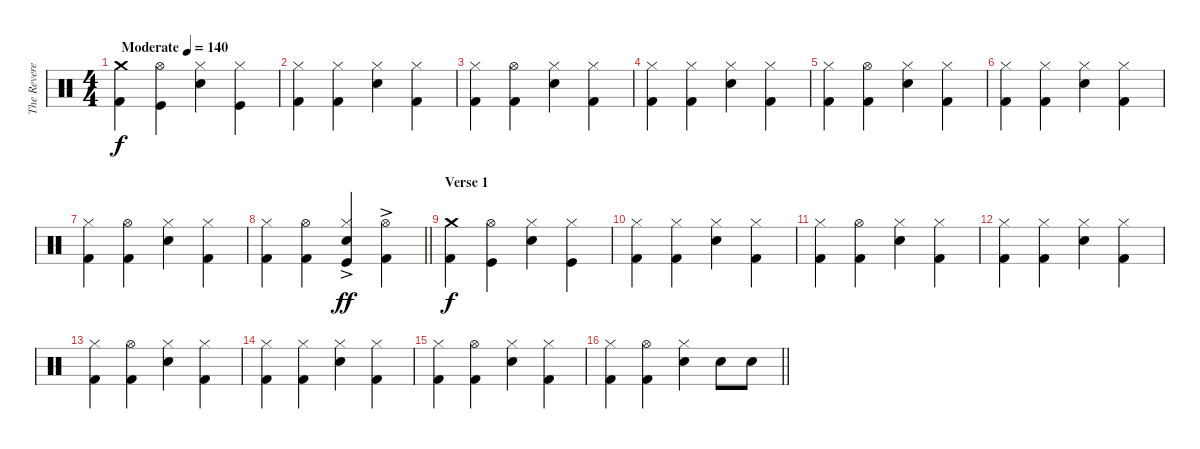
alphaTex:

\track ("The Reverend" "The Revere") {instrument percussion}
\staff {score}
\articulation defaults
\ts (4 4)
\tempo (140 "Moderate")
\clef neutral
\ks c
("Crash medium (hit)" "Kick (hit) 2").4{dy f} ("Hi-Hat (open)" "Kick (hit)").4 ("Hi-Hat (closed)" "Snare (hit) 2").4 ("Hi-Hat (closed)" "Kick (hit)").4 |
("Hi-Hat (closed)" "Kick (hit) 2").4 ("Hi-Hat (closed)" "Kick (hit) 2").4 ("Hi-Hat (closed)" "Snare (hit) 2").4 ("Hi-Hat (closed)" "Kick (hit) 2").4 |
("Hi-Hat (closed)" "Kick (hit) 2").4 ("Hi-Hat (open)" "Kick (hit) 2").4 ("Hi-Hat (closed)" "Snare (hit) 2").4 ("Hi-Hat (closed)" "Kick (hit) 2").4 |
("Hi-Hat (closed)" "Kick (hit) 2").4 ("Hi-Hat (closed)" "Kick (hit) 2").4 ("Hi-Hat (closed)" "Snare (hit) 2").4 ("Hi-Hat (closed)" "Kick (hit) 2").4 |
("Hi-Hat (closed)" "Kick (hit) 2").4 ("Hi-Hat (open)" "Kick (hit) 2").4 ("Hi-Hat (closed)" "Snare (hit) 2").4 ("Hi-Hat (closed)" "Kick (hit) 2").4 |
("Hi-Hat (closed)" "Kick (hit) 2").4 ("Hi-Hat (closed)" "Kick (hit) 2").4 ("Hi-Hat (closed)" "Snare (hit) 2").4 ("Hi-Hat (closed)" "Kick (hit) 2").4 |
("Hi-Hat (closed)" "Kick (hit) 2").4 ("Hi-Hat (open)" "Kick (hit) 2").4 ("Hi-Hat (closed)" "Snare (hit) 2").4 ("Hi-Hat (closed)" "Kick (hit) 2").4 |
\barLineRight lightlight
("Hi-Hat (closed)" "Kick (hit) 2").4 ("Hi-Hat (open)" "Kick (hit) 2").4 ("Hi-Hat (closed)"{ac} "Snare (hit) 2" "Kick (hit)").4{dy ff} ("Hi-Hat (open)"{ac} "Kick (hit) 2").4 |
\section ("" "Verse 1")
("Crash medium (hit)" "Kick (hit) 2").4{dy f} ("Hi-Hat (open)" "Kick (hit)").4 ("Hi-Hat (closed)" "Snare (hit) 2").4 ("Hi-Hat (closed)" "Kick (hit)").4 |
("Hi-Hat (closed)" "Kick (hit) 2").4 ("Hi-Hat (closed)" "Kick (hit) 2").4 ("Hi-Hat (closed)" "Snare (hit) 2").4 ("Hi-Hat (closed)" "Kick (hit) 2").4 |
("Hi-Hat (closed)" "Kick (hit) 2").4 ("Hi-Hat (open)" "Kick (hit) 2").4 ("Hi-Hat (closed)" "Snare (hit) 2").4 ("Hi-Hat (closed)" "Kick (hit) 2").4 |
("Hi-Hat (closed)" "Kick (hit) 2").4 ("Hi-Hat (closed)" "Kick (hit) 2").4 ("Hi-Hat (closed)" "Snare (hit) 2").4 ("Hi-Hat (closed)" "Kick (hit) 2").4 |
("Hi-Hat (closed)" "Kick (hit) 2").4 ("Hi-Hat (open)" "Kick (hit) 2").4 ("Hi-Hat (closed)" "Snare (hit) 2").4 ("Hi-Hat (closed)" "Kick (hit) 2").4 |
("Hi-Hat (closed)" "Kick (hit) 2").4 ("Hi-Hat (closed)" "Kick (hit) 2").4 ("Hi-Hat (closed)" "Snare (hit) 2").4 ("Hi-Hat (closed)" "Kick (hit) 2").4 |
("Hi-Hat (closed)" "Kick (hit) 2").4 ("Hi-Hat (open)" "Kick (hit) 2").4 ("Hi-Hat (closed)" "Snare (hit) 2").4 ("Hi-Hat (closed)" "Kick (hit) 2").4 |
\barLineRight lightlight
("Hi-Hat (closed)" "Kick (hit) 2").4 ("Hi-Hat (open)" "Kick (hit) 2").4 ("Hi-Hat (closed)" "Snare (hit) 2").4 "Snare (hit) 2".8 "Snare (hit) 2".8
